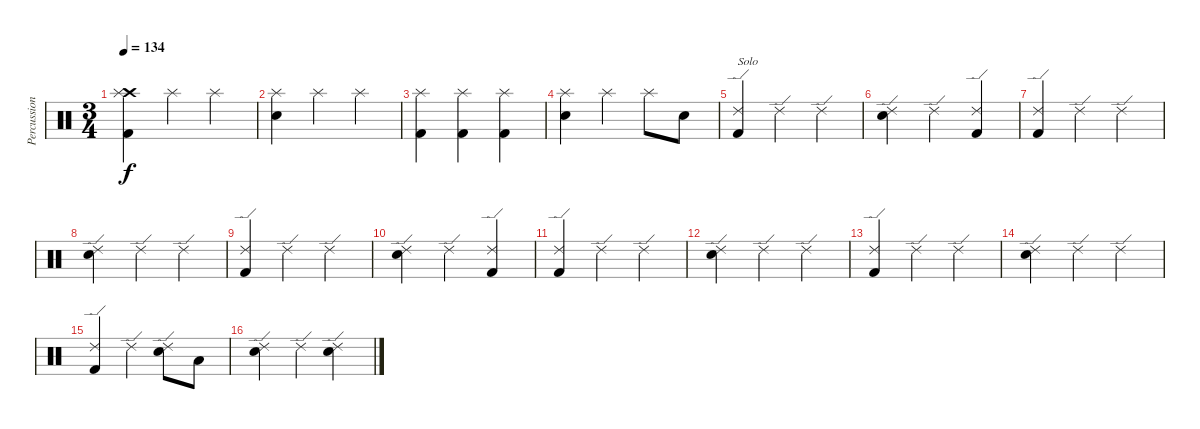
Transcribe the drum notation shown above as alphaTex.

\track ("Percussion" "Percussion") {instrument percussion}
\staff {score}
\articulation defaults
\ts (3 4)
\tempo 134
\clef neutral
\ks c
("Crash high (hit)" "Kick (hit) 2" "Splash (hit)").4{dy f} "Splash (hit)".4 "Splash (hit)".4 |
("Snare (hit) 2" "Splash (hit)").4 "Splash (hit)".4 "Splash (hit)".4 |
("Kick (hit) 2" "Splash (hit)").4 ("Kick (hit) 2" "Splash (hit)").4 ("Kick (hit) 2" "Splash (hit)").4 |
("Snare (hit) 2" "Splash (hit)").4 "Splash (hit)".4 "Splash (hit)".8 "Snare (hit) 2".8 |
("Kick (hit) 2" "Ride (edge) 2").4{txt "Solo"} "Ride (edge) 2".4 "Ride (edge) 2".4 |
("Snare (hit) 2" "Ride (edge) 2").4 "Ride (edge) 2".4 ("Kick (hit) 2" "Ride (edge) 2").4 |
("Kick (hit) 2" "Ride (edge) 2").4 "Ride (edge) 2".4 "Ride (edge) 2".4 |
("Snare (hit) 2" "Ride (edge) 2").4 "Ride (edge) 2".4 "Ride (edge) 2".4 |
("Kick (hit) 2" "Ride (edge) 2").4 "Ride (edge) 2".4 "Ride (edge) 2".4 |
("Snare (hit) 2" "Ride (edge) 2").4 "Ride (edge) 2".4 ("Kick (hit) 2" "Ride (edge) 2").4 |
("Kick (hit) 2" "Ride (edge) 2").4 "Ride (edge) 2".4 "Ride (edge) 2".4 |
("Snare (hit) 2" "Ride (edge) 2").4 "Ride (edge) 2".4 "Ride (edge) 2".4 |
("Kick (hit) 2" "Ride (edge) 2").4 "Ride (edge) 2".4 "Ride (edge) 2".4 |
("Snare (hit) 2" "Ride (edge) 2").4 "Ride (edge) 2".4 "Ride (edge) 2".4 |
("Kick (hit) 2" "Ride (edge) 2").4 "Ride (edge) 2".4 ("Snare (hit) 2" "Ride (edge) 2").8 "Low Tom (hit)".8 |
("Snare (hit) 2" "Ride (edge) 2").4 "Ride (edge) 2".4 ("Snare (hit) 2" "Ride (edge) 2").4
